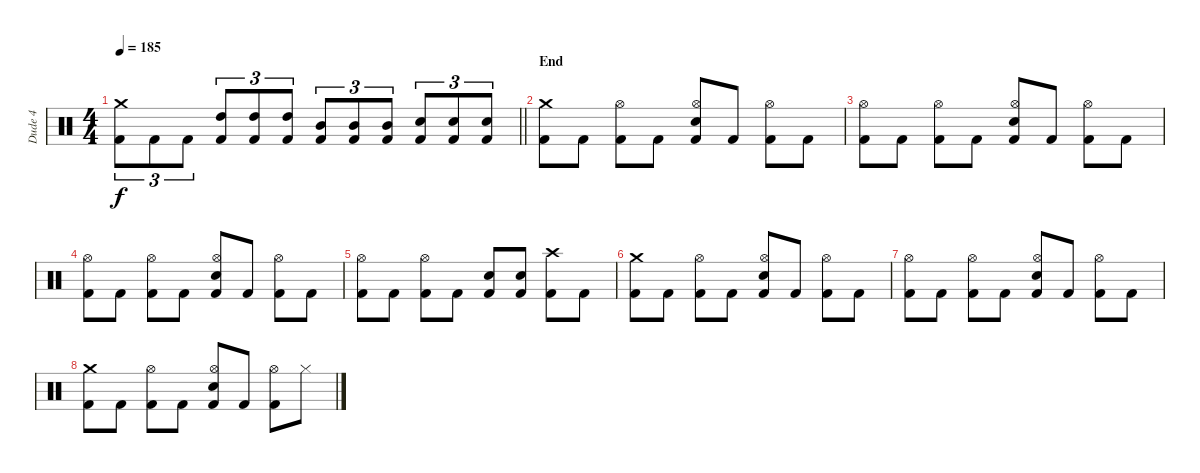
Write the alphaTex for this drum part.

\track ("Dude 4" "Dude 4") {instrument percussion}
\staff {score}
\articulation defaults
\ts (4 4)
\tempo 185
\clef neutral
\barLineRight lightlight
\ks c
("Crash medium (hit)" "Kick (hit) 2").8{tu (3 2) dy f} "Kick (hit) 2".8{tu (3 2)} "Kick (hit) 2".8{tu (3 2)} ("High Tom (hit)" "Kick (hit) 2").8{tu (3 2)} ("High Tom (hit)" "Kick (hit) 2").8{tu (3 2)} ("High Tom (hit)" "Kick (hit) 2").8{tu (3 2)} ("Mid Tom (hit)" "Kick (hit) 2").8{tu (3 2)} ("Mid Tom (hit)" "Kick (hit) 2").8{tu (3 2)} ("Mid Tom (hit)" "Kick (hit) 2").8{tu (3 2)} ("Electric Snare (hit)" "Kick (hit) 2").8{tu (3 2)} ("Electric Snare (hit)" "Kick (hit) 2").8{tu (3 2)} ("Electric Snare (hit)" "Kick (hit) 2").8{tu (3 2)} |
\section ("" "End")
("Crash medium (hit)" "Kick (hit) 2").8 "Kick (hit) 2".8 ("Hi-Hat (open)" "Kick (hit) 2").8 "Kick (hit) 2".8 ("Hi-Hat (open)" "Snare (hit) 2" "Kick (hit) 2").8 "Kick (hit) 2".8 ("Hi-Hat (open)" "Kick (hit) 2").8 "Kick (hit) 2".8 |
("Hi-Hat (open)" "Kick (hit) 2").8 "Kick (hit) 2".8 ("Hi-Hat (open)" "Kick (hit) 2").8 "Kick (hit) 2".8 ("Hi-Hat (open)" "Snare (hit) 2" "Kick (hit) 2").8 "Kick (hit) 2".8 ("Hi-Hat (open)" "Kick (hit) 2").8 "Kick (hit) 2".8 |
("Hi-Hat (open)" "Kick (hit) 2").8 "Kick (hit) 2".8 ("Hi-Hat (open)" "Kick (hit) 2").8 "Kick (hit) 2".8 ("Hi-Hat (open)" "Snare (hit) 2" "Kick (hit) 2").8 "Kick (hit) 2".8 ("Hi-Hat (open)" "Kick (hit) 2").8 "Kick (hit) 2".8 |
("Hi-Hat (open)" "Kick (hit) 2").8 "Kick (hit) 2".8 ("Hi-Hat (open)" "Kick (hit) 2").8 "Kick (hit) 2".8 ("Snare (hit) 2" "Kick (hit) 2").8 ("Snare (hit) 2" "Kick (hit) 2").8 ("Crash high (hit)" "Kick (hit) 2").8 "Kick (hit) 2".8 |
("Crash medium (hit)" "Kick (hit) 2").8 "Kick (hit) 2".8 ("Hi-Hat (open)" "Kick (hit) 2").8 "Kick (hit) 2".8 ("Hi-Hat (open)" "Snare (hit) 2" "Kick (hit) 2").8 "Kick (hit) 2".8 ("Hi-Hat (open)" "Kick (hit) 2").8 "Kick (hit) 2".8 |
("Hi-Hat (open)" "Kick (hit) 2").8 "Kick (hit) 2".8 ("Hi-Hat (open)" "Kick (hit) 2").8 "Kick (hit) 2".8 ("Hi-Hat (open)" "Snare (hit) 2" "Kick (hit) 2").8 "Kick (hit) 2".8 ("Hi-Hat (open)" "Kick (hit) 2").8 "Kick (hit) 2".8 |
("Crash medium (hit)" "Kick (hit) 2").8 "Kick (hit) 2".8 ("Hi-Hat (open)" "Kick (hit) 2").8 "Kick (hit) 2".8 ("Hi-Hat (open)" "Snare (hit) 2" "Kick (hit) 2").8 "Kick (hit) 2".8 ("Hi-Hat (open)" "Kick (hit) 2").8 "Hi-Hat (closed)".8
